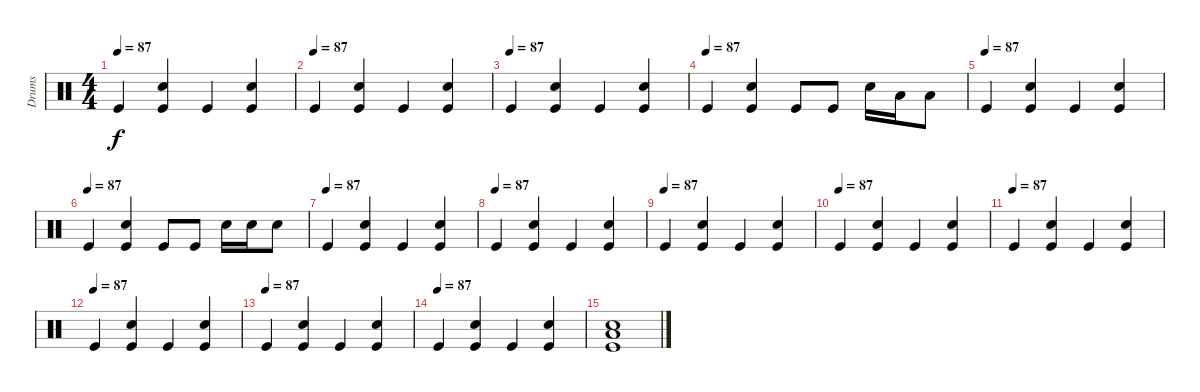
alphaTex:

\track ("Drums" "Drums") {instrument percussion}
\staff {score}
\articulation defaults
\ts (4 4)
\tempo 87
\clef neutral
\ks c "Kick (hit)".4{dy f}
("Snare (hit) 2" "Kick (hit)").4 "Kick (hit)".4 ("Snare (hit) 2" "Kick (hit)").4 |
\tempo (87)
"Kick (hit)".4 ("Snare (hit) 2" "Kick (hit)").4 "Kick (hit)".4 ("Snare (hit) 2" "Kick (hit)").4 |
\tempo (87)
"Kick (hit)".4 ("Snare (hit) 2" "Kick (hit)").4 "Kick (hit)".4 ("Snare (hit) 2" "Kick (hit)").4 |
\tempo (87)
"Kick (hit)".4 ("Snare (hit) 2" "Kick (hit)").4 "Kick (hit)".8 "Kick (hit)".8 "Snare (hit) 2".16 "Low Tom (hit)".16 "Low Floor Tom (hit)".8 |
\tempo (87)
"Kick (hit)".4 ("Snare (hit) 2" "Kick (hit)").4 "Kick (hit)".4 ("Snare (hit) 2" "Kick (hit)").4 |
\tempo (87)
"Kick (hit)".4 ("Snare (hit) 2" "Kick (hit)").4 "Kick (hit)".8 "Kick (hit)".8 "Snare (hit) 2".16 "Snare (hit) 2".16 "Snare (hit) 2".8 |
\tempo (87)
"Kick (hit)".4 ("Snare (hit) 2" "Kick (hit)").4 "Kick (hit)".4 ("Snare (hit) 2" "Kick (hit)").4 |
\tempo (87)
"Kick (hit)".4 ("Snare (hit) 2" "Kick (hit)").4 "Kick (hit)".4 ("Snare (hit) 2" "Kick (hit)").4 |
\tempo (87)
"Kick (hit)".4 ("Snare (hit) 2" "Kick (hit)").4 "Kick (hit)".4 ("Snare (hit) 2" "Kick (hit)").4 |
\tempo (87)
"Kick (hit)".4 ("Snare (hit) 2" "Kick (hit)").4 "Kick (hit)".4 ("Snare (hit) 2" "Kick (hit)").4 |
\tempo (87)
"Kick (hit)".4 ("Snare (hit) 2" "Kick (hit)").4 "Kick (hit)".4 ("Snare (hit) 2" "Kick (hit)").4 |
\tempo (87)
"Kick (hit)".4 ("Snare (hit) 2" "Kick (hit)").4 "Kick (hit)".4 ("Snare (hit) 2" "Kick (hit)").4 |
\tempo (87)
"Kick (hit)".4 ("Snare (hit) 2" "Kick (hit)").4 "Kick (hit)".4 ("Snare (hit) 2" "Kick (hit)").4 |
\tempo (87)
"Kick (hit)".4 ("Snare (hit) 2" "Kick (hit)").4 "Kick (hit)".4 ("Snare (hit) 2" "Kick (hit)").4 |
("Low Floor Tom (hit)" "Snare (hit) 2" "Kick (hit)").1
